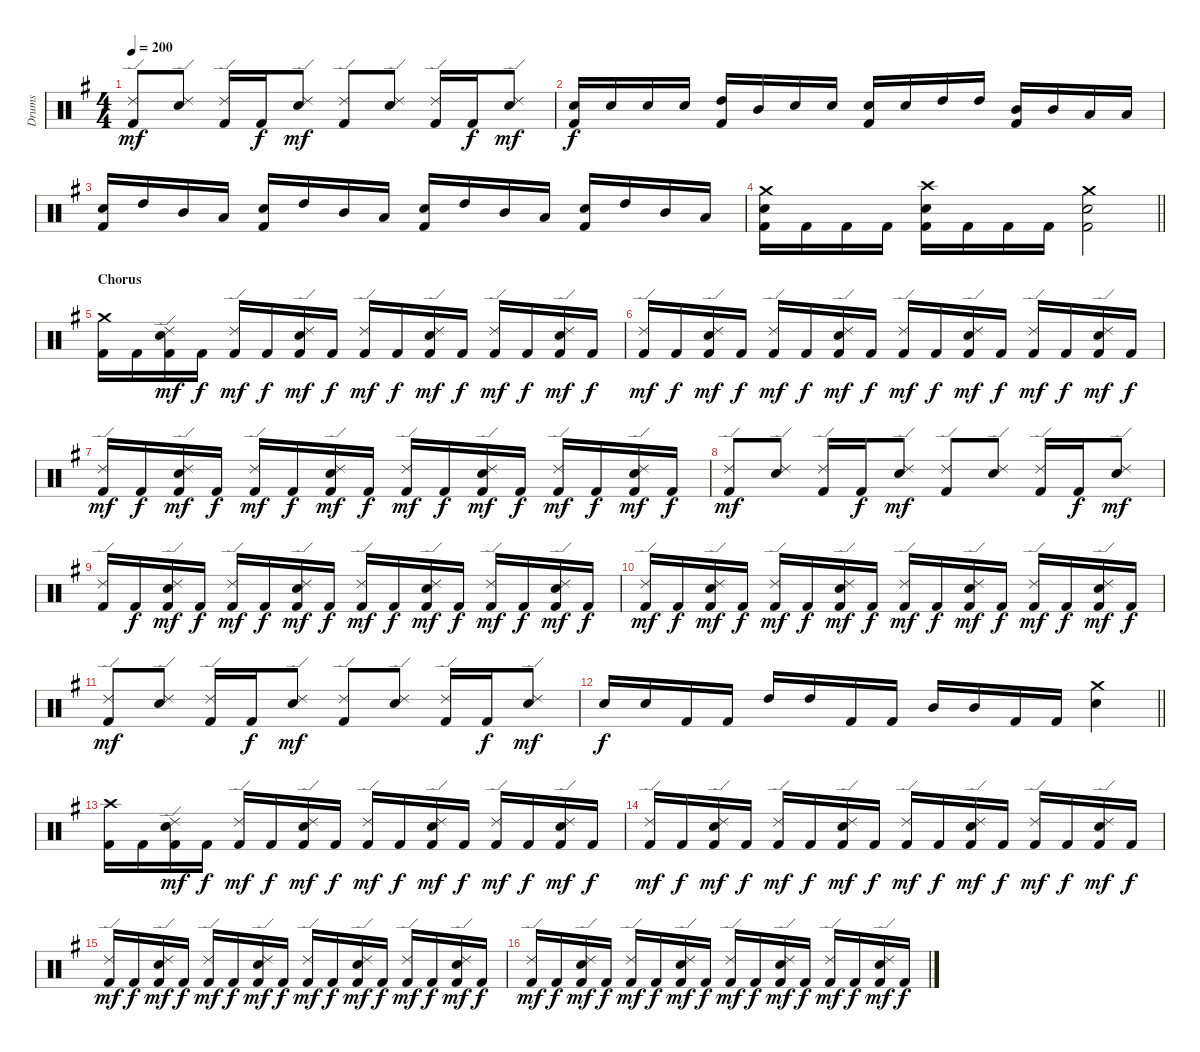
\track ("Drums" "Drums") {instrument percussion}
\staff {score}
\articulation defaults
\ts (4 4)
\tempo 200
\clef neutral
\ks g
("Ride (edge) 2" "Kick (hit) 2").8{dy mf} ("Ride (edge) 2" "Snare (hit) 2").8 ("Ride (edge) 2" "Kick (hit) 2").16 "Kick (hit) 2".16{dy f} ("Ride (edge) 2" "Snare (hit) 2").8{dy mf} ("Ride (edge) 2" "Kick (hit) 2").8 ("Ride (edge) 2" "Snare (hit) 2").8 ("Ride (edge) 2" "Kick (hit) 2").16 "Kick (hit) 2".16{dy f} ("Ride (edge) 2" "Snare (hit) 2").8{dy mf} |
("Snare (hit) 2" "Kick (hit) 2").16{dy f} "Snare (hit) 2".16 "Snare (hit) 2".16 "Snare (hit) 2".16 ("High Tom (hit)" "Kick (hit) 2").16 "Mid Tom (hit)".16 "Snare (hit) 2".16 "Snare (hit) 2".16 ("Snare (hit) 2" "Kick (hit) 2").16 "Snare (hit) 2".16 "High Tom (hit)".16 "High Tom (hit)".16 ("Mid Tom (hit)" "Kick (hit) 2").16 "Mid Tom (hit)".16 "Low Tom (hit)".16 "Low Tom (hit)".16 |
("Snare (hit) 2" "Kick (hit) 2").16 "High Tom (hit)".16 "Mid Tom (hit)".16 "Low Tom (hit)".16 ("Snare (hit) 2" "Kick (hit) 2").16 "High Tom (hit)".16 "Mid Tom (hit)".16 "Low Tom (hit)".16 ("Snare (hit) 2" "Kick (hit) 2").16 "High Tom (hit)".16 "Mid Tom (hit)".16 "Low Tom (hit)".16 ("Snare (hit) 2" "Kick (hit) 2").16 "High Tom (hit)".16 "Mid Tom (hit)".16 "Low Tom (hit)".16 |
\barLineRight lightlight
("Crash medium (hit)" "Snare (hit) 2" "Kick (hit) 2").16 "Kick (hit) 2".16 "Kick (hit) 2".16 "Kick (hit) 2".16 ("Crash high (hit)" "Snare (hit) 2" "Kick (hit) 2").16 "Kick (hit) 2".16 "Kick (hit) 2".16 "Kick (hit) 2".16 ("Crash medium (hit)" "Snare (hit) 2" "Kick (hit) 2").2 |
\section ("" "Chorus")
("Crash medium (hit)" "Kick (hit) 2").16 "Kick (hit) 2".16 ("Ride (edge) 2" "Snare (hit) 2" "Kick (hit) 2").16{dy mf} "Kick (hit) 2".16{dy f} ("Ride (edge) 2" "Kick (hit) 2").16{dy mf} "Kick (hit) 2".16{dy f} ("Ride (edge) 2" "Snare (hit) 2" "Kick (hit) 2").16{dy mf} "Kick (hit) 2".16{dy f} ("Ride (edge) 2" "Kick (hit) 2").16{dy mf} "Kick (hit) 2".16{dy f} ("Ride (edge) 2" "Snare (hit) 2" "Kick (hit) 2").16{dy mf} "Kick (hit) 2".16{dy f} ("Ride (edge) 2" "Kick (hit) 2").16{dy mf} "Kick (hit) 2".16{dy f} ("Ride (edge) 2" "Snare (hit) 2" "Kick (hit) 2").16{dy mf} "Kick (hit) 2".16{dy f} |
("Ride (edge) 2" "Kick (hit) 2").16{dy mf} "Kick (hit) 2".16{dy f} ("Ride (edge) 2" "Snare (hit) 2" "Kick (hit) 2").16{dy mf} "Kick (hit) 2".16{dy f} ("Ride (edge) 2" "Kick (hit) 2").16{dy mf} "Kick (hit) 2".16{dy f} ("Ride (edge) 2" "Snare (hit) 2" "Kick (hit) 2").16{dy mf} "Kick (hit) 2".16{dy f} ("Ride (edge) 2" "Kick (hit) 2").16{dy mf} "Kick (hit) 2".16{dy f} ("Ride (edge) 2" "Snare (hit) 2" "Kick (hit) 2").16{dy mf} "Kick (hit) 2".16{dy f} ("Ride (edge) 2" "Kick (hit) 2").16{dy mf} "Kick (hit) 2".16{dy f} ("Ride (edge) 2" "Snare (hit) 2" "Kick (hit) 2").16{dy mf} "Kick (hit) 2".16{dy f} |
("Ride (edge) 2" "Kick (hit) 2").16{dy mf} "Kick (hit) 2".16{dy f} ("Ride (edge) 2" "Snare (hit) 2" "Kick (hit) 2").16{dy mf} "Kick (hit) 2".16{dy f} ("Ride (edge) 2" "Kick (hit) 2").16{dy mf} "Kick (hit) 2".16{dy f} ("Ride (edge) 2" "Snare (hit) 2" "Kick (hit) 2").16{dy mf} "Kick (hit) 2".16{dy f} ("Ride (edge) 2" "Kick (hit) 2").16{dy mf} "Kick (hit) 2".16{dy f} ("Ride (edge) 2" "Snare (hit) 2" "Kick (hit) 2").16{dy mf} "Kick (hit) 2".16{dy f} ("Ride (edge) 2" "Kick (hit) 2").16{dy mf} "Kick (hit) 2".16{dy f} ("Ride (edge) 2" "Snare (hit) 2" "Kick (hit) 2").16{dy mf} "Kick (hit) 2".16{dy f} |
("Ride (edge) 2" "Kick (hit) 2").8{dy mf} ("Ride (edge) 2" "Snare (hit) 2").8 ("Ride (edge) 2" "Kick (hit) 2").16 "Kick (hit) 2".16{dy f} ("Ride (edge) 2" "Snare (hit) 2").8{dy mf} ("Ride (edge) 2" "Kick (hit) 2").8 ("Ride (edge) 2" "Snare (hit) 2").8 ("Ride (edge) 2" "Kick (hit) 2").16 "Kick (hit) 2".16{dy f} ("Ride (edge) 2" "Snare (hit) 2").8{dy mf} |
("Ride (edge) 2" "Kick (hit) 2").16 "Kick (hit) 2".16{dy f} ("Ride (edge) 2" "Snare (hit) 2" "Kick (hit) 2").16{dy mf} "Kick (hit) 2".16{dy f} ("Ride (edge) 2" "Kick (hit) 2").16{dy mf} "Kick (hit) 2".16{dy f} ("Ride (edge) 2" "Snare (hit) 2" "Kick (hit) 2").16{dy mf} "Kick (hit) 2".16{dy f} ("Ride (edge) 2" "Kick (hit) 2").16{dy mf} "Kick (hit) 2".16{dy f} ("Ride (edge) 2" "Snare (hit) 2" "Kick (hit) 2").16{dy mf} "Kick (hit) 2".16{dy f} ("Ride (edge) 2" "Kick (hit) 2").16{dy mf} "Kick (hit) 2".16{dy f} ("Ride (edge) 2" "Snare (hit) 2" "Kick (hit) 2").16{dy mf} "Kick (hit) 2".16{dy f} |
("Ride (edge) 2" "Kick (hit) 2").16{dy mf} "Kick (hit) 2".16{dy f} ("Ride (edge) 2" "Snare (hit) 2" "Kick (hit) 2").16{dy mf} "Kick (hit) 2".16{dy f} ("Ride (edge) 2" "Kick (hit) 2").16{dy mf} "Kick (hit) 2".16{dy f} ("Ride (edge) 2" "Snare (hit) 2" "Kick (hit) 2").16{dy mf} "Kick (hit) 2".16{dy f} ("Ride (edge) 2" "Kick (hit) 2").16{dy mf} "Kick (hit) 2".16{dy f} ("Ride (edge) 2" "Snare (hit) 2" "Kick (hit) 2").16{dy mf} "Kick (hit) 2".16{dy f} ("Ride (edge) 2" "Kick (hit) 2").16{dy mf} "Kick (hit) 2".16{dy f} ("Ride (edge) 2" "Snare (hit) 2" "Kick (hit) 2").16{dy mf} "Kick (hit) 2".16{dy f} |
("Ride (edge) 2" "Kick (hit) 2").8{dy mf} ("Ride (edge) 2" "Snare (hit) 2").8 ("Ride (edge) 2" "Kick (hit) 2").16 "Kick (hit) 2".16{dy f} ("Ride (edge) 2" "Snare (hit) 2").8{dy mf} ("Ride (edge) 2" "Kick (hit) 2").8 ("Ride (edge) 2" "Snare (hit) 2").8 ("Ride (edge) 2" "Kick (hit) 2").16 "Kick (hit) 2".16{dy f} ("Ride (edge) 2" "Snare (hit) 2").8{dy mf} |
\barLineRight lightlight "Snare (hit) 2".16{dy f} "Snare (hit) 2".16 "Kick (hit) 2".16 "Kick (hit) 2".16 "High Tom (hit)".16 "High Tom (hit)".16 "Kick (hit) 2".16 "Kick (hit) 2".16 "Mid Tom (hit)".16 "Mid Tom (hit)".16 "Kick (hit) 2".16 "Kick (hit) 2".16
("Crash medium (hit)" "Snare (hit) 2").4 |
\section ("" "")
("Crash high (hit)" "Kick (hit) 2").16 "Kick (hit) 2".16 ("Ride (edge) 2" "Snare (hit) 2" "Kick (hit) 2").16{dy mf} "Kick (hit) 2".16{dy f} ("Ride (edge) 2" "Kick (hit) 2").16{dy mf} "Kick (hit) 2".16{dy f} ("Ride (edge) 2" "Snare (hit) 2" "Kick (hit) 2").16{dy mf} "Kick (hit) 2".16{dy f} ("Ride (edge) 2" "Kick (hit) 2").16{dy mf} "Kick (hit) 2".16{dy f} ("Ride (edge) 2" "Snare (hit) 2" "Kick (hit) 2").16{dy mf} "Kick (hit) 2".16{dy f} ("Ride (edge) 2" "Kick (hit) 2").16{dy mf} "Kick (hit) 2".16{dy f} ("Ride (edge) 2" "Snare (hit) 2" "Kick (hit) 2").16{dy mf} "Kick (hit) 2".16{dy f} |
("Ride (edge) 2" "Kick (hit) 2").16{dy mf} "Kick (hit) 2".16{dy f} ("Ride (edge) 2" "Snare (hit) 2" "Kick (hit) 2").16{dy mf} "Kick (hit) 2".16{dy f} ("Ride (edge) 2" "Kick (hit) 2").16{dy mf} "Kick (hit) 2".16{dy f} ("Ride (edge) 2" "Snare (hit) 2" "Kick (hit) 2").16{dy mf} "Kick (hit) 2".16{dy f} ("Ride (edge) 2" "Kick (hit) 2").16{dy mf} "Kick (hit) 2".16{dy f} ("Ride (edge) 2" "Snare (hit) 2" "Kick (hit) 2").16{dy mf} "Kick (hit) 2".16{dy f} ("Ride (edge) 2" "Kick (hit) 2").16{dy mf} "Kick (hit) 2".16{dy f} ("Ride (edge) 2" "Snare (hit) 2" "Kick (hit) 2").16{dy mf} "Kick (hit) 2".16{dy f} |
("Ride (edge) 2" "Kick (hit) 2").16{dy mf} "Kick (hit) 2".16{dy f} ("Ride (edge) 2" "Snare (hit) 2" "Kick (hit) 2").16{dy mf} "Kick (hit) 2".16{dy f} ("Ride (edge) 2" "Kick (hit) 2").16{dy mf} "Kick (hit) 2".16{dy f} ("Ride (edge) 2" "Snare (hit) 2" "Kick (hit) 2").16{dy mf} "Kick (hit) 2".16{dy f} ("Ride (edge) 2" "Kick (hit) 2").16{dy mf} "Kick (hit) 2".16{dy f} ("Ride (edge) 2" "Snare (hit) 2" "Kick (hit) 2").16{dy mf} "Kick (hit) 2".16{dy f} ("Ride (edge) 2" "Kick (hit) 2").16{dy mf} "Kick (hit) 2".16{dy f} ("Ride (edge) 2" "Snare (hit) 2" "Kick (hit) 2").16{dy mf} "Kick (hit) 2".16{dy f} |
("Ride (edge) 2" "Kick (hit) 2").16{dy mf} "Kick (hit) 2".16{dy f} ("Ride (edge) 2" "Snare (hit) 2" "Kick (hit) 2").16{dy mf} "Kick (hit) 2".16{dy f} ("Ride (edge) 2" "Kick (hit) 2").16{dy mf} "Kick (hit) 2".16{dy f} ("Ride (edge) 2" "Snare (hit) 2" "Kick (hit) 2").16{dy mf} "Kick (hit) 2".16{dy f} ("Ride (edge) 2" "Kick (hit) 2").16{dy mf} "Kick (hit) 2".16{dy f} ("Ride (edge) 2" "Snare (hit) 2" "Kick (hit) 2").16{dy mf} "Kick (hit) 2".16{dy f} ("Ride (edge) 2" "Kick (hit) 2").16{dy mf} "Kick (hit) 2".16{dy f} ("Ride (edge) 2" "Snare (hit) 2" "Kick (hit) 2").16{dy mf} "Kick (hit) 2".16{dy f}
